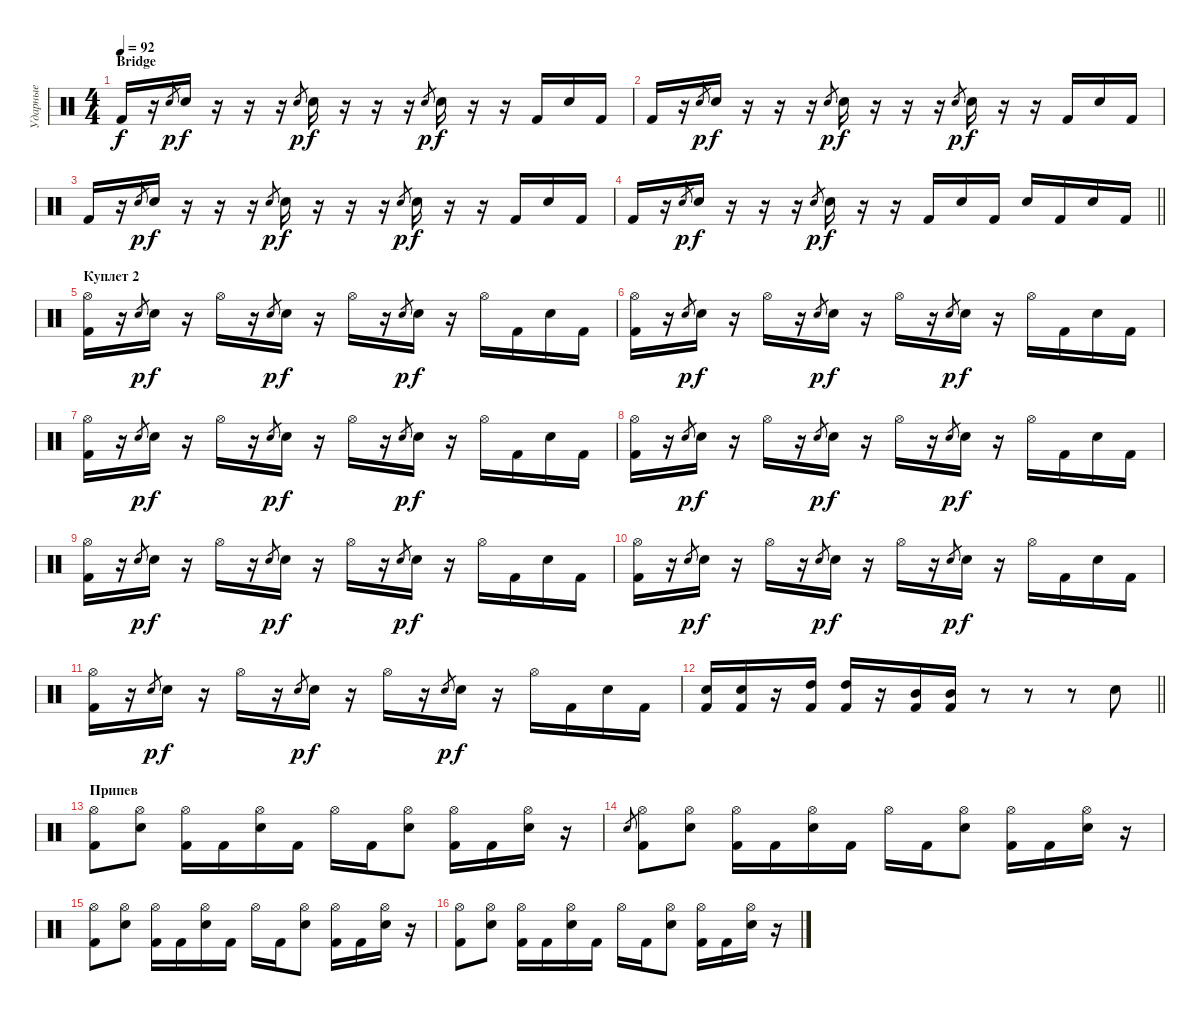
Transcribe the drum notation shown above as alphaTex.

\track ("Ударные" "Ударные") {instrument percussion}
\staff {score}
\articulation defaults
\ts (4 4)
\section ("" "Bridge")
\tempo 92
\clef neutral
\ks c "Kick (hit) 2".16{dy f}
r.16 "Electric Snare (hit)".8{gr dy p} "Electric Snare (hit)".16{dy f} r.16 r.16 r.16 "Electric Snare (hit)".8{gr dy p} "Electric Snare (hit)".16{dy f} r.16 r.16 r.16 "Electric Snare (hit)".8{gr dy p} "Electric Snare (hit)".16{dy f} r.16 r.16 "Kick (hit) 2".16 "Electric Snare (hit)".16 "Kick (hit) 2".16 |
"Kick (hit) 2".16 r.16 "Electric Snare (hit)".8{gr dy p} "Electric Snare (hit)".16{dy f} r.16 r.16 r.16 "Electric Snare (hit)".8{gr dy p} "Electric Snare (hit)".16{dy f} r.16 r.16 r.16 "Electric Snare (hit)".8{gr dy p} "Electric Snare (hit)".16{dy f} r.16 r.16 "Kick (hit) 2".16 "Electric Snare (hit)".16 "Kick (hit) 2".16 |
"Kick (hit) 2".16 r.16 "Electric Snare (hit)".8{gr dy p} "Electric Snare (hit)".16{dy f} r.16 r.16 r.16 "Electric Snare (hit)".8{gr dy p} "Electric Snare (hit)".16{dy f} r.16 r.16 r.16 "Electric Snare (hit)".8{gr dy p} "Electric Snare (hit)".16{dy f} r.16 r.16 "Kick (hit) 2".16 "Electric Snare (hit)".16 "Kick (hit) 2".16 |
\barLineRight lightlight "Kick (hit) 2".16
r.16 "Electric Snare (hit)".8{gr dy p} "Electric Snare (hit)".16{dy f} r.16 r.16 r.16 "Electric Snare (hit)".8{gr dy p} "Electric Snare (hit)".16{dy f} r.16 r.16 "Kick (hit) 2".16 "Electric Snare (hit)".16 "Kick (hit) 2".16 "Electric Snare (hit)".16 "Kick (hit) 2".16 "Electric Snare (hit)".16 "Kick (hit) 2".16 |
\section ("" "Куплет 2")
("Hi-Hat (open)" "Kick (hit) 2").16 r.16 "Electric Snare (hit)".8{gr dy p} "Electric Snare (hit)".16{dy f} r.16 "Hi-Hat (open)".16 r.16 "Electric Snare (hit)".8{gr dy p} "Electric Snare (hit)".16{dy f} r.16 "Hi-Hat (open)".16 r.16 "Electric Snare (hit)".8{gr dy p} "Electric Snare (hit)".16{dy f} r.16 "Hi-Hat (open)".16 "Kick (hit) 2".16 "Electric Snare (hit)".16 "Kick (hit) 2".16 |
("Hi-Hat (open)" "Kick (hit) 2").16 r.16 "Electric Snare (hit)".8{gr dy p} "Electric Snare (hit)".16{dy f} r.16 "Hi-Hat (open)".16 r.16 "Electric Snare (hit)".8{gr dy p} "Electric Snare (hit)".16{dy f} r.16 "Hi-Hat (open)".16 r.16 "Electric Snare (hit)".8{gr dy p} "Electric Snare (hit)".16{dy f} r.16 "Hi-Hat (open)".16 "Kick (hit) 2".16 "Electric Snare (hit)".16 "Kick (hit) 2".16 |
("Hi-Hat (open)" "Kick (hit) 2").16 r.16 "Electric Snare (hit)".8{gr dy p} "Electric Snare (hit)".16{dy f} r.16 "Hi-Hat (open)".16 r.16 "Electric Snare (hit)".8{gr dy p} "Electric Snare (hit)".16{dy f} r.16 "Hi-Hat (open)".16 r.16 "Electric Snare (hit)".8{gr dy p} "Electric Snare (hit)".16{dy f} r.16 "Hi-Hat (open)".16 "Kick (hit) 2".16 "Electric Snare (hit)".16 "Kick (hit) 2".16 |
("Hi-Hat (open)" "Kick (hit) 2").16 r.16 "Electric Snare (hit)".8{gr dy p} "Electric Snare (hit)".16{dy f} r.16 "Hi-Hat (open)".16 r.16 "Electric Snare (hit)".8{gr dy p} "Electric Snare (hit)".16{dy f} r.16 "Hi-Hat (open)".16 r.16 "Electric Snare (hit)".8{gr dy p} "Electric Snare (hit)".16{dy f} r.16 "Hi-Hat (open)".16 "Kick (hit) 2".16 "Electric Snare (hit)".16 "Kick (hit) 2".16 |
("Hi-Hat (open)" "Kick (hit) 2").16 r.16 "Electric Snare (hit)".8{gr dy p} "Electric Snare (hit)".16{dy f} r.16 "Hi-Hat (open)".16 r.16 "Electric Snare (hit)".8{gr dy p} "Electric Snare (hit)".16{dy f} r.16 "Hi-Hat (open)".16 r.16 "Electric Snare (hit)".8{gr dy p} "Electric Snare (hit)".16{dy f} r.16 "Hi-Hat (open)".16 "Kick (hit) 2".16 "Electric Snare (hit)".16 "Kick (hit) 2".16 |
("Hi-Hat (open)" "Kick (hit) 2").16 r.16 "Electric Snare (hit)".8{gr dy p} "Electric Snare (hit)".16{dy f} r.16 "Hi-Hat (open)".16 r.16 "Electric Snare (hit)".8{gr dy p} "Electric Snare (hit)".16{dy f} r.16 "Hi-Hat (open)".16 r.16 "Electric Snare (hit)".8{gr dy p} "Electric Snare (hit)".16{dy f} r.16 "Hi-Hat (open)".16 "Kick (hit) 2".16 "Electric Snare (hit)".16 "Kick (hit) 2".16 |
("Hi-Hat (open)" "Kick (hit) 2").16 r.16 "Electric Snare (hit)".8{gr dy p} "Electric Snare (hit)".16{dy f} r.16 "Hi-Hat (open)".16 r.16 "Electric Snare (hit)".8{gr dy p} "Electric Snare (hit)".16{dy f} r.16 "Hi-Hat (open)".16 r.16 "Electric Snare (hit)".8{gr dy p} "Electric Snare (hit)".16{dy f} r.16 "Hi-Hat (open)".16 "Kick (hit) 2".16 "Electric Snare (hit)".16 "Kick (hit) 2".16 |
\barLineRight lightlight
("Kick (hit) 2" "Electric Snare (hit)").16 ("Kick (hit) 2" "Electric Snare (hit)").16 r.16 ("Kick (hit) 2" "High Tom (hit)").16 ("Kick (hit) 2" "High Tom (hit)").16 r.16 ("Kick (hit) 2" "Mid Tom (hit)").16 ("Kick (hit) 2" "Mid Tom (hit)").16 r.8 r.8 r.8 "Electric Snare (hit)".8 |
\section ("" "Припев")
("Hi-Hat (open)" "Kick (hit) 2").8 ("Hi-Hat (open)" "Electric Snare (hit)").8 ("Hi-Hat (open)" "Kick (hit) 2").16 "Kick (hit) 2".16 ("Hi-Hat (open)" "Electric Snare (hit)").16 "Kick (hit) 2".16 "Hi-Hat (open)".16 "Kick (hit) 2".16 ("Hi-Hat (open)" "Electric Snare (hit)").8 ("Hi-Hat (open)" "Kick (hit) 2").16 "Kick (hit) 2".16 ("Hi-Hat (open)" "Electric Snare (hit)").16 r.16 |
"Electric Snare (hit)".8{gr} ("Hi-Hat (open)" "Kick (hit) 2").8 ("Hi-Hat (open)" "Electric Snare (hit)").8 ("Hi-Hat (open)" "Kick (hit) 2").16 "Kick (hit) 2".16 ("Hi-Hat (open)" "Electric Snare (hit)").16 "Kick (hit) 2".16 "Hi-Hat (open)".16 "Kick (hit) 2".16 ("Hi-Hat (open)" "Electric Snare (hit)").8 ("Hi-Hat (open)" "Kick (hit) 2").16 "Kick (hit) 2".16 ("Hi-Hat (open)" "Electric Snare (hit)").16 r.16 |
("Hi-Hat (open)" "Kick (hit) 2").8 ("Hi-Hat (open)" "Electric Snare (hit)").8 ("Hi-Hat (open)" "Kick (hit) 2").16 "Kick (hit) 2".16 ("Hi-Hat (open)" "Electric Snare (hit)").16 "Kick (hit) 2".16 "Hi-Hat (open)".16 "Kick (hit) 2".16 ("Hi-Hat (open)" "Electric Snare (hit)").8 ("Hi-Hat (open)" "Kick (hit) 2").16 "Kick (hit) 2".16 ("Hi-Hat (open)" "Electric Snare (hit)").16 r.16 |
("Hi-Hat (open)" "Kick (hit) 2").8 ("Hi-Hat (open)" "Electric Snare (hit)").8 ("Hi-Hat (open)" "Kick (hit) 2").16 "Kick (hit) 2".16 ("Hi-Hat (open)" "Electric Snare (hit)").16 "Kick (hit) 2".16 "Hi-Hat (open)".16 "Kick (hit) 2".16 ("Hi-Hat (open)" "Electric Snare (hit)").8 ("Hi-Hat (open)" "Kick (hit) 2").16 "Kick (hit) 2".16 ("Hi-Hat (open)" "Electric Snare (hit)").16 r.16
